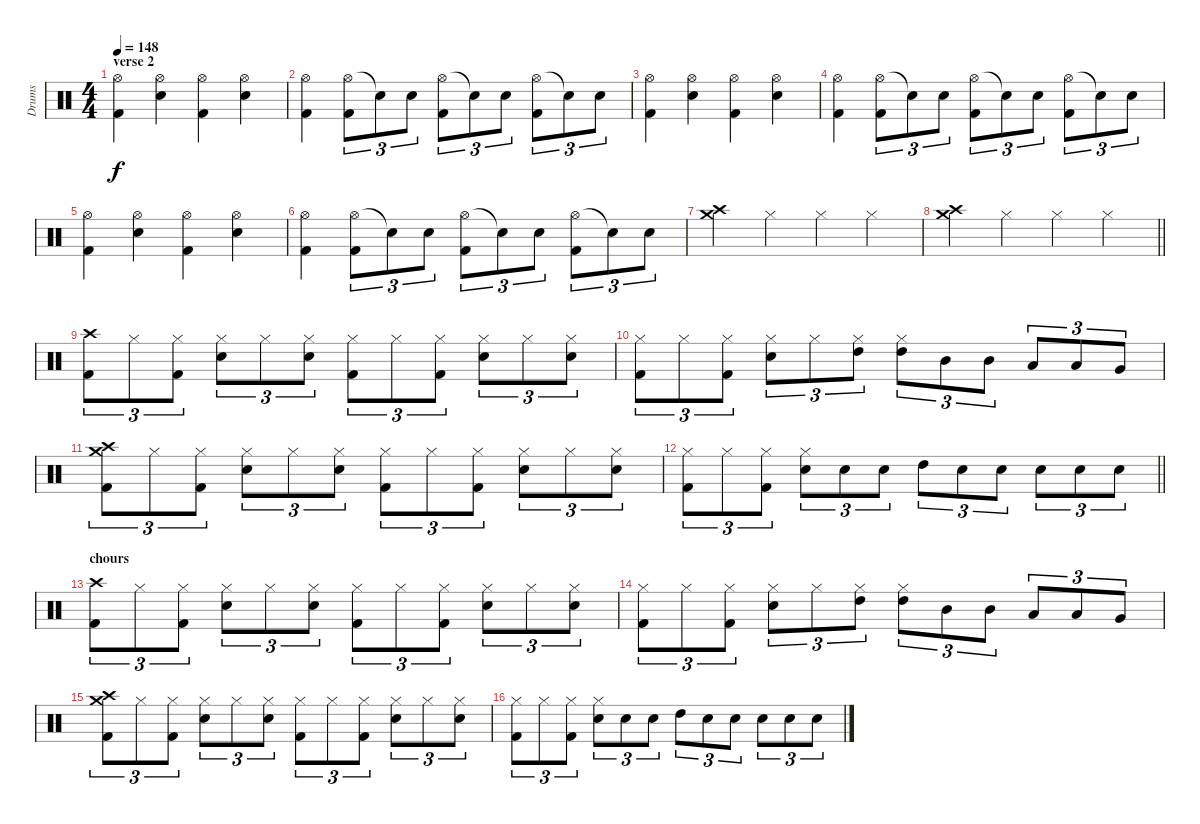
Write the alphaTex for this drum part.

\track ("Drums" "Drums") {instrument percussion}
\staff {score}
\articulation defaults
\ts (4 4)
\section ("" "verse 2")
\tempo 148
\clef neutral
\ks c
("Hi-Hat (open)" "Kick (hit) 2").4{dy f} ("Hi-Hat (open)" "Snare (hit) 2").4 ("Hi-Hat (open)" "Kick (hit) 2").4 ("Hi-Hat (open)" "Snare (hit) 2").4 |
("Hi-Hat (open)" "Kick (hit) 2").4 ("Hi-Hat (open)" "Kick (hit) 2").8{tu (3 2)} "Snare (hit)"{t}.8{tu (3 2)} "Snare (hit) 2".8{tu (3 2)} ("Hi-Hat (open)" "Kick (hit) 2").8{tu (3 2)} "Snare (hit)"{t}.8{tu (3 2)} "Snare (hit) 2".8{tu (3 2)} ("Hi-Hat (open)" "Kick (hit) 2").8{tu (3 2)} "Snare (hit) 2"{t}.8{tu (3 2)} "Snare (hit) 2".8{tu (3 2)} |
("Hi-Hat (open)" "Kick (hit) 2").4 ("Hi-Hat (open)" "Snare (hit) 2").4 ("Hi-Hat (open)" "Kick (hit) 2").4 ("Hi-Hat (open)" "Snare (hit) 2").4 |
("Hi-Hat (open)" "Kick (hit) 2").4 ("Hi-Hat (open)" "Kick (hit) 2").8{tu (3 2)} "Snare (hit)"{t}.8{tu (3 2)} "Snare (hit) 2".8{tu (3 2)} ("Hi-Hat (open)" "Kick (hit) 2").8{tu (3 2)} "Snare (hit)"{t}.8{tu (3 2)} "Snare (hit) 2".8{tu (3 2)} ("Hi-Hat (open)" "Kick (hit) 2").8{tu (3 2)} "Snare (hit) 2"{t}.8{tu (3 2)} "Snare (hit) 2".8{tu (3 2)} |
("Hi-Hat (open)" "Kick (hit) 2").4 ("Hi-Hat (open)" "Snare (hit) 2").4 ("Hi-Hat (open)" "Kick (hit) 2").4 ("Hi-Hat (open)" "Snare (hit) 2").4 |
("Hi-Hat (open)" "Kick (hit) 2").4 ("Hi-Hat (open)" "Kick (hit) 2").8{tu (3 2)} "Snare (hit)"{t}.8{tu (3 2)} "Snare (hit) 2".8{tu (3 2)} ("Hi-Hat (open)" "Kick (hit) 2").8{tu (3 2)} "Snare (hit)"{t}.8{tu (3 2)} "Snare (hit) 2".8{tu (3 2)} ("Hi-Hat (open)" "Kick (hit) 2").8{tu (3 2)} "Snare (hit) 2"{t}.8{tu (3 2)} "Snare (hit) 2".8{tu (3 2)} |
("Crash high (hit)" "Crash medium (hit)").4 "Hi-Hat (closed)".4 "Hi-Hat (closed)".4 "Hi-Hat (closed)".4 |
\barLineRight lightlight
("Crash high (hit)" "Crash medium (hit)").4 "Hi-Hat (closed)".4 "Hi-Hat (closed)".4 "Hi-Hat (closed)".4 |
("Crash high (hit)" "Kick (hit) 2").8{tu (3 2)} "Hi-Hat (closed)".8{tu (3 2)} ("Hi-Hat (closed)" "Kick (hit) 2").8{tu (3 2)} ("Hi-Hat (closed)" "Snare (hit) 2").8{tu (3 2)} "Hi-Hat (closed)".8{tu (3 2)} ("Hi-Hat (closed)" "Snare (hit) 2").8{tu (3 2)} ("Hi-Hat (closed)" "Kick (hit) 2").8{tu (3 2)} "Hi-Hat (closed)".8{tu (3 2)} ("Hi-Hat (closed)" "Kick (hit) 2").8{tu (3 2)} ("Hi-Hat (closed)" "Snare (hit) 2").8{tu (3 2)} "Hi-Hat (closed)".8{tu (3 2)} ("Hi-Hat (closed)" "Snare (hit) 2").8{tu (3 2)} |
("Hi-Hat (closed)" "Kick (hit) 2").8{tu (3 2)} "Hi-Hat (closed)".8{tu (3 2)} ("Hi-Hat (closed)" "Kick (hit) 2").8{tu (3 2)} ("Hi-Hat (closed)" "Snare (hit) 2").8{tu (3 2)} "Hi-Hat (closed)".8{tu (3 2)} ("Hi-Hat (closed)" "High Tom (hit)").8{tu (3 2)} ("Hi-Hat (closed)" "High Tom (hit)").8{tu (3 2)} "Mid Tom (hit)".8{tu (3 2)} "Mid Tom (hit)".8{tu (3 2)} "Low Tom (hit)".8{tu (3 2)} "Low Tom (hit)".8{tu (3 2)} "Very Low Tom (hit)".8{tu (3 2)} |
("Crash high (hit)" "Crash medium (hit)" "Kick (hit) 2").8{tu (3 2)} "Hi-Hat (closed)".8{tu (3 2)} ("Hi-Hat (closed)" "Kick (hit) 2").8{tu (3 2)} ("Hi-Hat (closed)" "Snare (hit) 2").8{tu (3 2)} "Hi-Hat (closed)".8{tu (3 2)} ("Hi-Hat (closed)" "Snare (hit) 2").8{tu (3 2)} ("Hi-Hat (closed)" "Kick (hit) 2").8{tu (3 2)} "Hi-Hat (closed)".8{tu (3 2)} ("Hi-Hat (closed)" "Kick (hit) 2").8{tu (3 2)} ("Hi-Hat (closed)" "Snare (hit) 2").8{tu (3 2)} "Hi-Hat (closed)".8{tu (3 2)} ("Hi-Hat (closed)" "Snare (hit) 2").8{tu (3 2)} |
\barLineRight lightlight
("Hi-Hat (closed)" "Kick (hit) 2").8{tu (3 2)} "Hi-Hat (closed)".8{tu (3 2)} ("Hi-Hat (closed)" "Kick (hit) 2").8{tu (3 2)} ("Hi-Hat (closed)" "Snare (hit) 2").8{tu (3 2)} "Snare (hit) 2".8{tu (3 2)} "Snare (hit) 2".8{tu (3 2)} "High Tom (hit)".8{tu (3 2)} "Snare (hit) 2".8{tu (3 2)} "Snare (hit) 2".8{tu (3 2)} "Snare (hit) 2".8{tu (3 2)} "Snare (hit) 2".8{tu (3 2)} "Snare (hit) 2".8{tu (3 2)} |
\section ("" "chours")
("Crash high (hit)" "Kick (hit) 2").8{tu (3 2)} "Hi-Hat (closed)".8{tu (3 2)} ("Hi-Hat (closed)" "Kick (hit) 2").8{tu (3 2)} ("Hi-Hat (closed)" "Snare (hit) 2").8{tu (3 2)} "Hi-Hat (closed)".8{tu (3 2)} ("Hi-Hat (closed)" "Snare (hit) 2").8{tu (3 2)} ("Hi-Hat (closed)" "Kick (hit) 2").8{tu (3 2)} "Hi-Hat (closed)".8{tu (3 2)} ("Hi-Hat (closed)" "Kick (hit) 2").8{tu (3 2)} ("Hi-Hat (closed)" "Snare (hit) 2").8{tu (3 2)} "Hi-Hat (closed)".8{tu (3 2)} ("Hi-Hat (closed)" "Snare (hit) 2").8{tu (3 2)} |
("Hi-Hat (closed)" "Kick (hit) 2").8{tu (3 2)} "Hi-Hat (closed)".8{tu (3 2)} ("Hi-Hat (closed)" "Kick (hit) 2").8{tu (3 2)} ("Hi-Hat (closed)" "Snare (hit) 2").8{tu (3 2)} "Hi-Hat (closed)".8{tu (3 2)} ("Hi-Hat (closed)" "High Tom (hit)").8{tu (3 2)} ("Hi-Hat (closed)" "High Tom (hit)").8{tu (3 2)} "Mid Tom (hit)".8{tu (3 2)} "Mid Tom (hit)".8{tu (3 2)} "Low Tom (hit)".8{tu (3 2)} "Low Tom (hit)".8{tu (3 2)} "Very Low Tom (hit)".8{tu (3 2)} |
("Crash high (hit)" "Crash medium (hit)" "Kick (hit) 2").8{tu (3 2)} "Hi-Hat (closed)".8{tu (3 2)} ("Hi-Hat (closed)" "Kick (hit) 2").8{tu (3 2)} ("Hi-Hat (closed)" "Snare (hit) 2").8{tu (3 2)} "Hi-Hat (closed)".8{tu (3 2)} ("Hi-Hat (closed)" "Snare (hit) 2").8{tu (3 2)} ("Hi-Hat (closed)" "Kick (hit) 2").8{tu (3 2)} "Hi-Hat (closed)".8{tu (3 2)} ("Hi-Hat (closed)" "Kick (hit) 2").8{tu (3 2)} ("Hi-Hat (closed)" "Snare (hit) 2").8{tu (3 2)} "Hi-Hat (closed)".8{tu (3 2)} ("Hi-Hat (closed)" "Snare (hit) 2").8{tu (3 2)} |
("Hi-Hat (closed)" "Kick (hit) 2").8{tu (3 2)} "Hi-Hat (closed)".8{tu (3 2)} ("Hi-Hat (closed)" "Kick (hit) 2").8{tu (3 2)} ("Hi-Hat (closed)" "Snare (hit) 2").8{tu (3 2)} "Snare (hit) 2".8{tu (3 2)} "Snare (hit) 2".8{tu (3 2)} "High Tom (hit)".8{tu (3 2)} "Snare (hit) 2".8{tu (3 2)} "Snare (hit) 2".8{tu (3 2)} "Snare (hit) 2".8{tu (3 2)} "Snare (hit) 2".8{tu (3 2)} "Snare (hit) 2".8{tu (3 2)}
